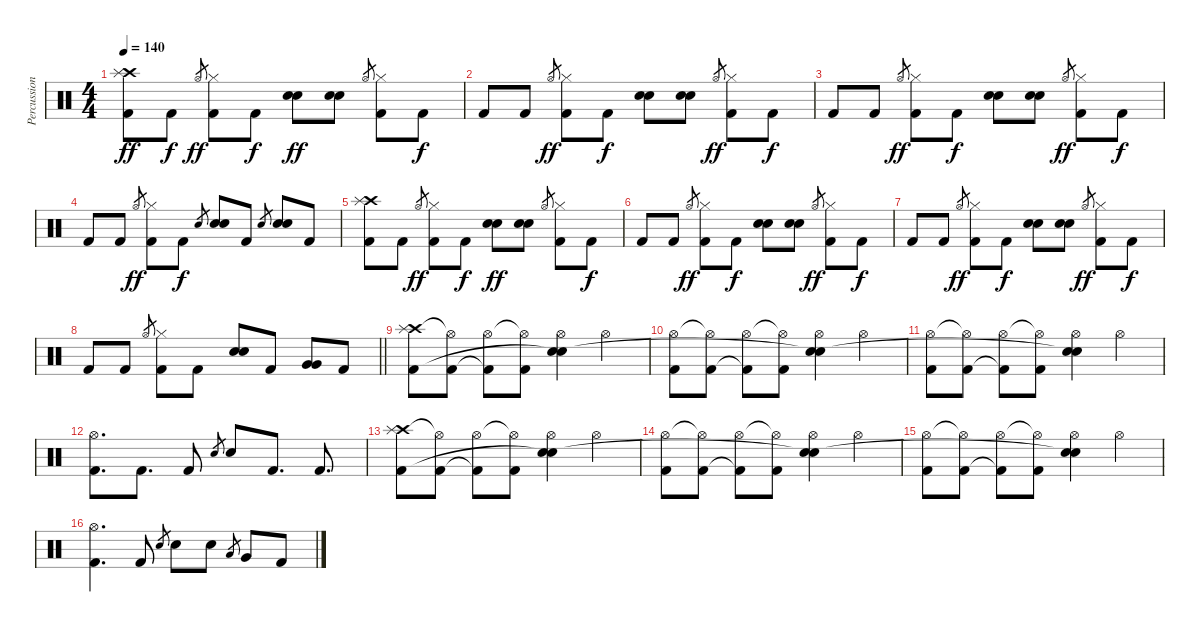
\track ("Percussion" "Percussion") {instrument percussion}
\staff {score}
\articulation defaults
\ts (4 4)
\tempo 140
\clef neutral
\ks c
("Crash high (hit)" "Splash (hit)" "Kick (hit) 2").8{dy ff} "Kick (hit) 2".8{dy f} "Hi-Hat (open)".8{gr dy ff} ("Hi-Hat (closed)" "Kick (hit) 2").8 "Kick (hit) 2".8{dy f} ("Electric Snare (hit)" "Electric Snare (hit)").8{dy ff} ("Electric Snare (hit)" "Electric Snare (hit)").8 "Hi-Hat (open)".8{gr} ("Hi-Hat (closed)" "Kick (hit) 2").8 "Kick (hit) 2".8{dy f} |
"Kick (hit) 2".8 "Kick (hit) 2".8 "Hi-Hat (open)".8{gr dy ff} ("Hi-Hat (closed)" "Kick (hit) 2").8 "Kick (hit) 2".8{dy f} ("Electric Snare (hit)" "Electric Snare (hit)").8 ("Electric Snare (hit)" "Electric Snare (hit)").8 "Hi-Hat (open)".8{gr dy ff} ("Hi-Hat (closed)" "Kick (hit) 2").8 "Kick (hit) 2".8{dy f} |
"Kick (hit) 2".8 "Kick (hit) 2".8 "Hi-Hat (open)".8{gr dy ff} ("Hi-Hat (closed)" "Kick (hit) 2").8 "Kick (hit) 2".8{dy f} ("Electric Snare (hit)" "Electric Snare (hit)").8 ("Electric Snare (hit)" "Electric Snare (hit)").8 "Hi-Hat (open)".8{gr dy ff} ("Hi-Hat (closed)" "Kick (hit) 2").8 "Kick (hit) 2".8{dy f} |
"Kick (hit) 2".8 "Kick (hit) 2".8 "Hi-Hat (open)".8{gr dy ff} ("Hi-Hat (closed)" "Kick (hit) 2").8 "Kick (hit) 2".8{dy f} "Electric Snare (hit)".8{gr} ("Electric Snare (hit)" "Electric Snare (hit)").8 "Kick (hit) 2".8 "Electric Snare (hit)".8{gr} ("Electric Snare (hit)" "Electric Snare (hit)").8 "Kick (hit) 2".8 |
("Crash high (hit)" "Splash (hit)" "Kick (hit) 2").8 "Kick (hit) 2".8 "Hi-Hat (open)".8{gr dy ff} ("Hi-Hat (closed)" "Kick (hit) 2").8 "Kick (hit) 2".8{dy f} ("Electric Snare (hit)" "Electric Snare (hit)").8{dy ff} ("Electric Snare (hit)" "Electric Snare (hit)").8 "Hi-Hat (open)".8{gr} ("Hi-Hat (closed)" "Kick (hit) 2").8 "Kick (hit) 2".8{dy f} |
"Kick (hit) 2".8 "Kick (hit) 2".8 "Hi-Hat (open)".8{gr dy ff} ("Hi-Hat (closed)" "Kick (hit) 2").8 "Kick (hit) 2".8{dy f} ("Electric Snare (hit)" "Electric Snare (hit)").8 ("Electric Snare (hit)" "Electric Snare (hit)").8 "Hi-Hat (open)".8{gr dy ff} ("Hi-Hat (closed)" "Kick (hit) 2").8 "Kick (hit) 2".8{dy f} |
"Kick (hit) 2".8 "Kick (hit) 2".8 "Hi-Hat (open)".8{gr dy ff} ("Hi-Hat (closed)" "Kick (hit) 2").8 "Kick (hit) 2".8{dy f} ("Electric Snare (hit)" "Electric Snare (hit)").8 ("Electric Snare (hit)" "Electric Snare (hit)").8 "Hi-Hat (open)".8{gr dy ff} ("Hi-Hat (closed)" "Kick (hit) 2").8 "Kick (hit) 2".8{dy f} |
\barLineRight lightlight "Kick (hit) 2".8 "Kick (hit) 2".8 "Hi-Hat (open)".8{gr}
("Hi-Hat (closed)" "Kick (hit) 2").8 "Kick (hit) 2".8 ("Electric Snare (hit)" "Electric Snare (hit)").8 "Kick (hit) 2".8 ("Very Low Tom (hit)" "Very Low Tom (hit)").8 "Kick (hit) 2".8 |
("Crash high (hit)" "Splash (hit)" "Kick (hit) 2").8 ("Hi-Hat (open)"{t} "Kick (hit) 2").8 ("Hi-Hat (open)" "Kick (hit) 2"{t}).8 ("Hi-Hat (open)"{t} "Kick (hit) 2").8 ("Hi-Hat (open)" "Electric Snare (hit)" "Snare (hit)"{t}).4 "Hi-Hat (open)".4 |
("Hi-Hat (open)" "Kick (hit) 2").8 ("Hi-Hat (open)"{t} "Kick (hit) 2").8 ("Hi-Hat (open)" "Kick (hit) 2"{t}).8 ("Hi-Hat (open)"{t} "Kick (hit) 2").8 ("Hi-Hat (open)" "Electric Snare (hit)" "Snare (hit)"{t}).4 "Hi-Hat (open)".4 |
("Hi-Hat (open)" "Kick (hit) 2").8 ("Hi-Hat (open)"{t} "Kick (hit) 2").8 ("Hi-Hat (open)" "Kick (hit) 2"{t}).8 ("Hi-Hat (open)"{t} "Kick (hit) 2").8 ("Hi-Hat (open)" "Electric Snare (hit)" "Snare (hit)"{t}).4 "Hi-Hat (open)".4 |
("Hi-Hat (open)" "Kick (hit) 2").8{d} "Kick (hit) 2".8{d} "Kick (hit) 2".8 "Electric Snare (hit)".8{gr} "Electric Snare (hit)".8 "Kick (hit) 2".8{d} "Kick (hit) 2".8{d} |
("Crash high (hit)" "Splash (hit)" "Kick (hit) 2").8 ("Hi-Hat (open)"{t} "Kick (hit) 2").8 ("Hi-Hat (open)" "Kick (hit) 2"{t}).8 ("Hi-Hat (open)"{t} "Kick (hit) 2").8 ("Hi-Hat (open)" "Electric Snare (hit)" "Snare (hit)"{t}).4 "Hi-Hat (open)".4 |
("Hi-Hat (open)" "Kick (hit) 2").8 ("Hi-Hat (open)"{t} "Kick (hit) 2").8 ("Hi-Hat (open)" "Kick (hit) 2"{t}).8 ("Hi-Hat (open)"{t} "Kick (hit) 2").8 ("Hi-Hat (open)" "Electric Snare (hit)" "Snare (hit)"{t}).4 "Hi-Hat (open)".4 |
("Hi-Hat (open)" "Kick (hit) 2").8 ("Hi-Hat (open)"{t} "Kick (hit) 2").8 ("Hi-Hat (open)" "Kick (hit) 2"{t}).8 ("Hi-Hat (open)"{t} "Kick (hit) 2").8 ("Hi-Hat (open)" "Electric Snare (hit)" "Snare (hit)"{t}).4 "Hi-Hat (open)".4 |
("Hi-Hat (open)" "Kick (hit) 2").4{d} "Kick (hit) 2".8 "Electric Snare (hit)".8{gr} "Electric Snare (hit)".8 "Electric Snare (hit)".8 "Low Floor Tom (hit)".8{gr} "Very Low Tom (hit)".8 "Kick (hit) 2".8
